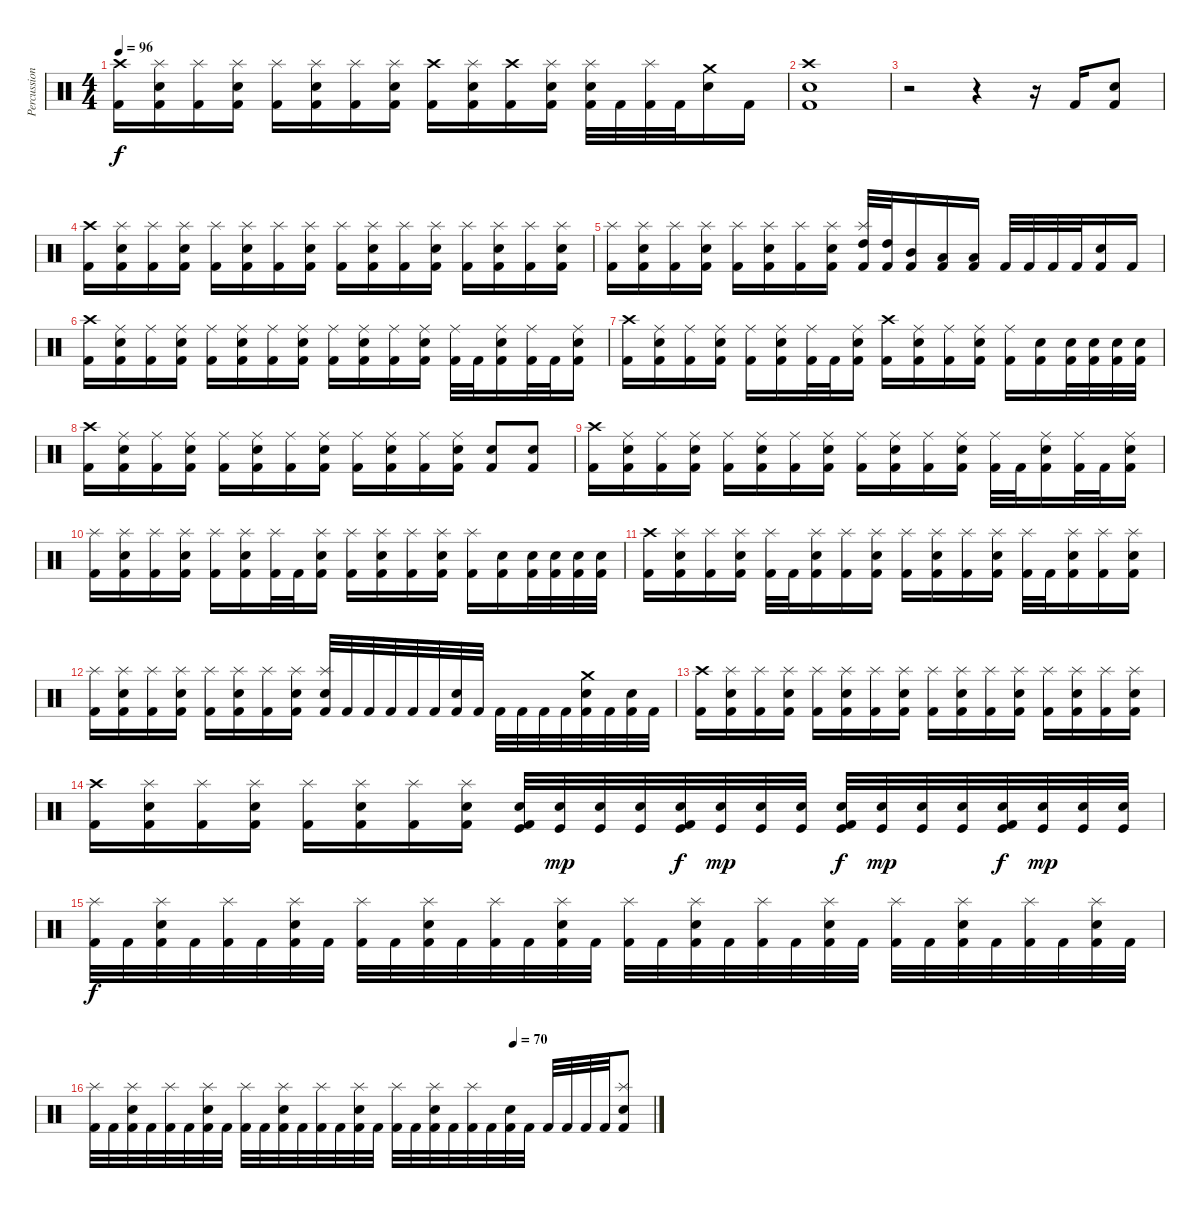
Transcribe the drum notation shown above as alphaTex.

\track ("Percussion" "Percussion") {instrument percussion}
\staff {score}
\articulation defaults
\ts (4 4)
\tempo 96
\clef neutral
\ks c
("Crash high (hit)" "Kick (hit) 2").16{dy f} ("Splash (hit)" "Snare (hit) 2" "Kick (hit) 2").16 ("Splash (hit)" "Kick (hit) 2").16 ("Splash (hit)" "Snare (hit) 2" "Kick (hit) 2").16 ("Splash (hit)" "Kick (hit) 2").16 ("Splash (hit)" "Snare (hit) 2" "Kick (hit) 2").16 ("Splash (hit)" "Kick (hit) 2").16 ("Splash (hit)" "Snare (hit) 2" "Kick (hit) 2").16 ("Crash high (hit)" "Kick (hit) 2").16 ("Splash (hit)" "Snare (hit) 2" "Kick (hit) 2").16 ("Crash high (hit)" "Kick (hit) 2").16 ("Splash (hit)" "Snare (hit) 2" "Kick (hit) 2").16 ("Splash (hit)" "Snare (hit) 2" "Kick (hit) 2").32 "Kick (hit) 2".32 ("Splash (hit)" "Kick (hit) 2").32 "Kick (hit) 2".32 ("Crash medium (hit)" "Snare (hit) 2").16 "Kick (hit) 2".16 |
("Crash high (hit)" "Snare (hit) 2" "Kick (hit) 2").1 |
r.2 r.4 r.16 "Kick (hit) 2".16 ("Snare (hit) 2" "Kick (hit) 2").8 |
("Crash high (hit)" "Kick (hit) 2").16 ("Splash (hit)" "Snare (hit) 2" "Kick (hit) 2").16 ("Splash (hit)" "Kick (hit) 2").16 ("Splash (hit)" "Snare (hit) 2" "Kick (hit) 2").16 ("Splash (hit)" "Kick (hit) 2").16 ("Splash (hit)" "Snare (hit) 2" "Kick (hit) 2").16 ("Splash (hit)" "Kick (hit) 2").16 ("Splash (hit)" "Snare (hit) 2" "Kick (hit) 2").16 ("Splash (hit)" "Kick (hit) 2").16 ("Splash (hit)" "Snare (hit) 2" "Kick (hit) 2").16 ("Splash (hit)" "Kick (hit) 2").16 ("Splash (hit)" "Snare (hit) 2" "Kick (hit) 2").16 ("Splash (hit)" "Kick (hit) 2").16 ("Splash (hit)" "Snare (hit) 2" "Kick (hit) 2").16 ("Splash (hit)" "Kick (hit) 2").16 ("Splash (hit)" "Snare (hit) 2" "Kick (hit) 2").16 |
("Splash (hit)" "Kick (hit) 2").16 ("Splash (hit)" "Snare (hit) 2" "Kick (hit) 2").16 ("Splash (hit)" "Kick (hit) 2").16 ("Splash (hit)" "Snare (hit) 2" "Kick (hit) 2").16 ("Splash (hit)" "Kick (hit) 2").16 ("Splash (hit)" "Snare (hit) 2" "Kick (hit) 2").16 ("Splash (hit)" "Kick (hit) 2").16 ("Splash (hit)" "Snare (hit) 2" "Kick (hit) 2").16 ("Splash (hit)" "High Tom (hit)" "Kick (hit) 2").32 ("High Tom (hit)" "Kick (hit) 2").32 ("Mid Tom (hit)" "Kick (hit) 2").16 ("Low Tom (hit)" "Kick (hit) 2").16 ("Low Floor Tom (hit)" "Kick (hit) 2").16 "Kick (hit) 2".32 "Kick (hit) 2".32 "Kick (hit) 2".32 "Kick (hit) 2".32 ("Snare (hit) 2" "Kick (hit) 2").16 "Kick (hit) 2".16 |
("Crash high (hit)" "Kick (hit) 2").16 ("Ride (middle)" "Snare (hit) 2" "Kick (hit) 2").16 ("Ride (middle)" "Kick (hit) 2").16 ("Ride (middle)" "Snare (hit) 2" "Kick (hit) 2").16 ("Ride (middle)" "Kick (hit) 2").16 ("Ride (middle)" "Snare (hit) 2" "Kick (hit) 2").16 ("Ride (middle)" "Kick (hit) 2").16 ("Ride (middle)" "Snare (hit) 2" "Kick (hit) 2").16 ("Ride (middle)" "Kick (hit) 2").16 ("Ride (middle)" "Snare (hit) 2" "Kick (hit) 2").16 ("Ride (middle)" "Kick (hit) 2").16 ("Ride (middle)" "Snare (hit) 2" "Kick (hit) 2").16 ("Ride (middle)" "Kick (hit) 2").32 "Kick (hit) 2".32 ("Ride (middle)" "Snare (hit) 2" "Kick (hit) 2").16 ("Ride (middle)" "Kick (hit) 2").32 "Kick (hit) 2".32 ("Ride (middle)" "Snare (hit) 2" "Kick (hit) 2").16 |
("Crash high (hit)" "Kick (hit) 2").16 ("Ride (middle)" "Snare (hit) 2" "Kick (hit) 2").16 ("Ride (middle)" "Kick (hit) 2").16 ("Ride (middle)" "Snare (hit) 2" "Kick (hit) 2").16 ("Ride (middle)" "Kick (hit) 2").16 ("Ride (middle)" "Snare (hit) 2" "Kick (hit) 2").16 ("Ride (middle)" "Kick (hit) 2").32 "Kick (hit) 2".32 ("Ride (middle)" "Snare (hit) 2" "Kick (hit) 2").16 ("Crash high (hit)" "Kick (hit) 2").16 ("Ride (middle)" "Snare (hit) 2" "Kick (hit) 2").16 ("Ride (middle)" "Kick (hit) 2").16 ("Ride (middle)" "Snare (hit) 2" "Kick (hit) 2").16 ("Ride (middle)" "Kick (hit) 2").16 ("Snare (hit) 2" "Kick (hit) 2").16 ("Snare (hit) 2" "Kick (hit) 2").32 ("Snare (hit) 2" "Kick (hit) 2").32 ("Snare (hit) 2" "Kick (hit) 2").32 ("Snare (hit) 2" "Kick (hit) 2").32 |
("Crash high (hit)" "Kick (hit) 2").16 ("Ride (middle)" "Snare (hit) 2" "Kick (hit) 2").16 ("Ride (middle)" "Kick (hit) 2").16 ("Ride (middle)" "Snare (hit) 2" "Kick (hit) 2").16 ("Ride (middle)" "Kick (hit) 2").16 ("Ride (middle)" "Snare (hit) 2" "Kick (hit) 2").16 ("Ride (middle)" "Kick (hit) 2").16 ("Ride (middle)" "Snare (hit) 2" "Kick (hit) 2").16 ("Ride (middle)" "Kick (hit) 2").16 ("Ride (middle)" "Snare (hit) 2" "Kick (hit) 2").16 ("Ride (middle)" "Kick (hit) 2").16 ("Ride (middle)" "Snare (hit) 2" "Kick (hit) 2").16 ("Snare (hit) 2" "Kick (hit) 2").8 ("Snare (hit) 2" "Kick (hit) 2").8 |
("Crash high (hit)" "Kick (hit) 2").16 ("Ride (middle)" "Snare (hit) 2" "Kick (hit) 2").16 ("Ride (middle)" "Kick (hit) 2").16 ("Ride (middle)" "Snare (hit) 2" "Kick (hit) 2").16 ("Ride (middle)" "Kick (hit) 2").16 ("Ride (middle)" "Snare (hit) 2" "Kick (hit) 2").16 ("Ride (middle)" "Kick (hit) 2").16 ("Ride (middle)" "Snare (hit) 2" "Kick (hit) 2").16 ("Ride (middle)" "Kick (hit) 2").16 ("Ride (middle)" "Snare (hit) 2" "Kick (hit) 2").16 ("Ride (middle)" "Kick (hit) 2").16 ("Ride (middle)" "Snare (hit) 2" "Kick (hit) 2").16 ("Ride (middle)" "Kick (hit) 2").32 "Kick (hit) 2".32 ("Ride (middle)" "Snare (hit) 2" "Kick (hit) 2").16 ("Ride (middle)" "Kick (hit) 2").32 "Kick (hit) 2".32 ("Ride (middle)" "Snare (hit) 2" "Kick (hit) 2").16 |
("Splash (hit)" "Kick (hit) 2").16 ("Splash (hit)" "Snare (hit) 2" "Kick (hit) 2").16 ("Splash (hit)" "Kick (hit) 2").16 ("Splash (hit)" "Snare (hit) 2" "Kick (hit) 2").16 ("Splash (hit)" "Kick (hit) 2").16 ("Splash (hit)" "Snare (hit) 2" "Kick (hit) 2").16 ("Splash (hit)" "Kick (hit) 2").32 "Kick (hit) 2".32 ("Splash (hit)" "Snare (hit) 2" "Kick (hit) 2").16 ("Splash (hit)" "Kick (hit) 2").16 ("Splash (hit)" "Snare (hit) 2" "Kick (hit) 2").16 ("Splash (hit)" "Kick (hit) 2").16 ("Splash (hit)" "Snare (hit) 2" "Kick (hit) 2").16 ("Splash (hit)" "Kick (hit) 2").16 ("Snare (hit) 2" "Kick (hit) 2").16 ("Snare (hit) 2" "Kick (hit) 2").32 ("Snare (hit) 2" "Kick (hit) 2").32 ("Snare (hit) 2" "Kick (hit) 2").32 ("Snare (hit) 2" "Kick (hit) 2").32 |
("Crash high (hit)" "Kick (hit) 2").16 ("Splash (hit)" "Snare (hit) 2" "Kick (hit) 2").16 ("Splash (hit)" "Kick (hit) 2").16 ("Splash (hit)" "Snare (hit) 2" "Kick (hit) 2").16 ("Splash (hit)" "Kick (hit) 2").32 "Kick (hit) 2".32 ("Splash (hit)" "Snare (hit) 2" "Kick (hit) 2").16 ("Splash (hit)" "Kick (hit) 2").16 ("Splash (hit)" "Snare (hit) 2" "Kick (hit) 2").16 ("Splash (hit)" "Kick (hit) 2").16 ("Splash (hit)" "Snare (hit) 2" "Kick (hit) 2").16 ("Splash (hit)" "Kick (hit) 2").16 ("Splash (hit)" "Snare (hit) 2" "Kick (hit) 2").16 ("Splash (hit)" "Kick (hit) 2").32 "Kick (hit) 2".32 ("Splash (hit)" "Snare (hit) 2" "Kick (hit) 2").16 ("Splash (hit)" "Kick (hit) 2").16 ("Splash (hit)" "Snare (hit) 2" "Kick (hit) 2").16 |
("Splash (hit)" "Kick (hit) 2").16 ("Splash (hit)" "Snare (hit) 2" "Kick (hit) 2").16 ("Splash (hit)" "Kick (hit) 2").16 ("Splash (hit)" "Snare (hit) 2" "Kick (hit) 2").16 ("Splash (hit)" "Kick (hit) 2").16 ("Splash (hit)" "Snare (hit) 2" "Kick (hit) 2").16 ("Splash (hit)" "Kick (hit) 2").16 ("Splash (hit)" "Snare (hit) 2" "Kick (hit) 2").16 ("Splash (hit)" "Snare (hit) 2" "Kick (hit) 2").32 "Kick (hit) 2".32 "Kick (hit) 2".32 "Kick (hit) 2".32 "Kick (hit) 2".32 "Kick (hit) 2".32 ("Snare (hit) 2" "Kick (hit) 2").32 "Kick (hit) 2".32 "Kick (hit) 2".32 "Kick (hit) 2".32 "Kick (hit) 2".32 "Kick (hit) 2".32 ("Crash medium (hit)" "Snare (hit) 2" "Kick (hit) 2").32 "Kick (hit) 2".32 ("Snare (hit) 2" "Kick (hit) 2").32 "Kick (hit) 2".32 |
("Crash high (hit)" "Kick (hit) 2").16 ("Splash (hit)" "Snare (hit) 2" "Kick (hit) 2").16 ("Splash (hit)" "Kick (hit) 2").16 ("Splash (hit)" "Snare (hit) 2" "Kick (hit) 2").16 ("Splash (hit)" "Kick (hit) 2").16 ("Splash (hit)" "Snare (hit) 2" "Kick (hit) 2").16 ("Splash (hit)" "Kick (hit) 2").16 ("Splash (hit)" "Snare (hit) 2" "Kick (hit) 2").16 ("Splash (hit)" "Kick (hit) 2").16 ("Splash (hit)" "Snare (hit) 2" "Kick (hit) 2").16 ("Splash (hit)" "Kick (hit) 2").16 ("Splash (hit)" "Snare (hit) 2" "Kick (hit) 2").16 ("Splash (hit)" "Kick (hit) 2").16 ("Splash (hit)" "Snare (hit) 2" "Kick (hit) 2").16 ("Splash (hit)" "Kick (hit) 2").16 ("Splash (hit)" "Snare (hit) 2" "Kick (hit) 2").16 |
("Crash high (hit)" "Kick (hit) 2").16 ("Splash (hit)" "Snare (hit) 2" "Kick (hit) 2").16 ("Splash (hit)" "Kick (hit) 2").16 ("Splash (hit)" "Snare (hit) 2" "Kick (hit) 2").16 ("Splash (hit)" "Kick (hit) 2").16 ("Splash (hit)" "Snare (hit) 2" "Kick (hit) 2").16 ("Splash (hit)" "Kick (hit) 2").16 ("Splash (hit)" "Snare (hit) 2" "Kick (hit) 2").16 ("Kick (hit)" "Snare (hit) 2" "Kick (hit) 2").32 ("Kick (hit)" "Snare (hit) 2").32{dy mp} ("Kick (hit)" "Snare (hit) 2").32 ("Kick (hit)" "Snare (hit) 2").32 ("Kick (hit)" "Snare (hit) 2" "Kick (hit) 2").32{dy f} ("Kick (hit)" "Snare (hit) 2").32{dy mp} ("Kick (hit)" "Snare (hit) 2").32 ("Kick (hit)" "Snare (hit) 2").32 ("Kick (hit)" "Snare (hit) 2" "Kick (hit) 2").32{dy f} ("Kick (hit)" "Snare (hit) 2").32{dy mp} ("Kick (hit)" "Snare (hit) 2").32 ("Kick (hit)" "Snare (hit) 2").32 ("Kick (hit)" "Snare (hit) 2" "Kick (hit) 2").32{dy f} ("Kick (hit)" "Snare (hit) 2").32{dy mp} ("Kick (hit)" "Snare (hit) 2").32 ("Kick (hit)" "Snare (hit) 2").32 |
("Splash (hit)" "Kick (hit) 2").32{dy f} "Kick (hit) 2".32 ("Splash (hit)" "Snare (hit) 2" "Kick (hit) 2").32 "Kick (hit) 2".32 ("Splash (hit)" "Kick (hit) 2").32 "Kick (hit) 2".32 ("Splash (hit)" "Snare (hit) 2" "Kick (hit) 2").32 "Kick (hit) 2".32 ("Splash (hit)" "Kick (hit) 2").32 "Kick (hit) 2".32 ("Splash (hit)" "Snare (hit) 2" "Kick (hit) 2").32 "Kick (hit) 2".32 ("Splash (hit)" "Kick (hit) 2").32 "Kick (hit) 2".32 ("Splash (hit)" "Snare (hit) 2" "Kick (hit) 2").32 "Kick (hit) 2".32 ("Splash (hit)" "Kick (hit) 2").32 "Kick (hit) 2".32 ("Splash (hit)" "Snare (hit) 2" "Kick (hit) 2").32 "Kick (hit) 2".32 ("Splash (hit)" "Kick (hit) 2").32 "Kick (hit) 2".32 ("Splash (hit)" "Snare (hit) 2" "Kick (hit) 2").32 "Kick (hit) 2".32 ("Splash (hit)" "Kick (hit) 2").32 "Kick (hit) 2".32 ("Splash (hit)" "Snare (hit) 2" "Kick (hit) 2").32 "Kick (hit) 2".32 ("Splash (hit)" "Kick (hit) 2").32 "Kick (hit) 2".32 ("Splash (hit)" "Snare (hit) 2" "Kick (hit) 2").32 "Kick (hit) 2".32 |
\tempo (70 0.75)
("Splash (hit)" "Kick (hit) 2").32 "Kick (hit) 2".32 ("Splash (hit)" "Snare (hit) 2" "Kick (hit) 2").32 "Kick (hit) 2".32 ("Splash (hit)" "Kick (hit) 2").32 "Kick (hit) 2".32 ("Splash (hit)" "Snare (hit) 2" "Kick (hit) 2").32 "Kick (hit) 2".32 ("Splash (hit)" "Kick (hit) 2").32 "Kick (hit) 2".32 ("Splash (hit)" "Snare (hit) 2" "Kick (hit) 2").32 "Kick (hit) 2".32 ("Splash (hit)" "Kick (hit) 2").32 "Kick (hit) 2".32 ("Splash (hit)" "Snare (hit) 2" "Kick (hit) 2").32 "Kick (hit) 2".32 ("Splash (hit)" "Kick (hit) 2").32 "Kick (hit) 2".32 ("Splash (hit)" "Snare (hit) 2" "Kick (hit) 2").32 "Kick (hit) 2".32 ("Splash (hit)" "Kick (hit) 2").32 "Kick (hit) 2".32 ("Snare (hit) 2" "Kick (hit) 2").32 "Kick (hit) 2".32 "Kick (hit) 2".32 "Kick (hit) 2".32 "Kick (hit) 2".32 "Kick (hit) 2".32 ("Splash (hit)" "Snare (hit) 2" "Kick (hit) 2").8
